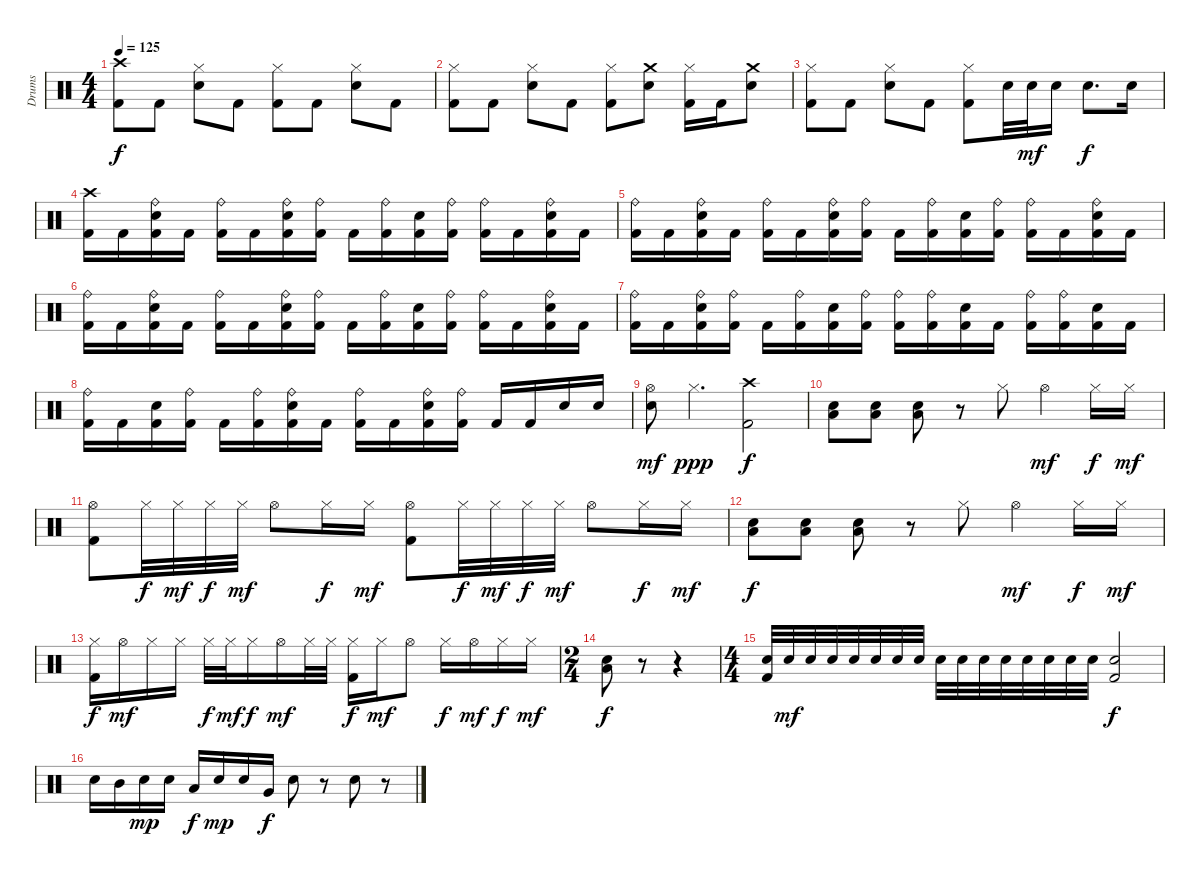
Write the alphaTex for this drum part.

\track ("Drums" "Drums") {instrument percussion}
\staff {score}
\articulation defaults
\ts (4 4)
\tempo 125
\clef neutral
\ks c
("Kick (hit) 2" "Crash high (hit)").8{dy f} "Kick (hit) 2".8 ("Hi-Hat (closed)" "Electric Snare (hit)").8 "Kick (hit) 2".8 ("Kick (hit) 2" "Hi-Hat (closed)").8 "Kick (hit) 2".8 ("Hi-Hat (closed)" "Electric Snare (hit)").8 "Kick (hit) 2".8 |
("Kick (hit) 2" "Hi-Hat (closed)").8 "Kick (hit) 2".8 ("Hi-Hat (closed)" "Electric Snare (hit)").8 "Kick (hit) 2".8 ("Kick (hit) 2" "Hi-Hat (closed)").8 ("Crash medium (hit)" "Electric Snare (hit)").8 ("Kick (hit) 2" "Hi-Hat (closed)").16 "Kick (hit) 2".16 ("Crash medium (hit)" "Electric Snare (hit)").8 |
("Kick (hit) 2" "Hi-Hat (closed)").8 "Kick (hit) 2".8 ("Hi-Hat (closed)" "Electric Snare (hit)").8 "Kick (hit) 2".8 ("Kick (hit) 2" "Hi-Hat (closed)").8 "Electric Snare (hit)".32 "Electric Snare (hit)".32{dy mf} "Electric Snare (hit)".16 "Electric Snare (hit)".8{d dy f} "Electric Snare (hit)".16 |
("Kick (hit) 2" "Crash high (hit)").16 "Kick (hit) 2".16 ("Kick (hit) 2" "Ride (bell)" "Electric Snare (hit)").16 "Kick (hit) 2".16 ("Kick (hit) 2" "Ride (bell)").16 "Kick (hit) 2".16 ("Kick (hit) 2" "Ride (bell)" "Electric Snare (hit)").16 ("Kick (hit) 2" "Ride (bell)").16 "Kick (hit) 2".16 ("Kick (hit) 2" "Ride (bell)").16 ("Kick (hit) 2" "Electric Snare (hit)").16 ("Kick (hit) 2" "Ride (bell)").16 ("Kick (hit) 2" "Ride (bell)").16 "Kick (hit) 2".16 ("Kick (hit) 2" "Ride (bell)" "Electric Snare (hit)").16 "Kick (hit) 2".16 |
("Kick (hit) 2" "Ride (bell)").16 "Kick (hit) 2".16 ("Kick (hit) 2" "Ride (bell)" "Electric Snare (hit)").16 "Kick (hit) 2".16 ("Kick (hit) 2" "Ride (bell)").16 "Kick (hit) 2".16 ("Kick (hit) 2" "Ride (bell)" "Electric Snare (hit)").16 ("Kick (hit) 2" "Ride (bell)").16 "Kick (hit) 2".16 ("Kick (hit) 2" "Ride (bell)").16 ("Kick (hit) 2" "Electric Snare (hit)").16 ("Kick (hit) 2" "Ride (bell)").16 ("Kick (hit) 2" "Ride (bell)").16 "Kick (hit) 2".16 ("Kick (hit) 2" "Ride (bell)" "Electric Snare (hit)").16 "Kick (hit) 2".16 |
("Kick (hit) 2" "Ride (bell)").16 "Kick (hit) 2".16 ("Kick (hit) 2" "Ride (bell)" "Electric Snare (hit)").16 "Kick (hit) 2".16 ("Kick (hit) 2" "Ride (bell)").16 "Kick (hit) 2".16 ("Kick (hit) 2" "Ride (bell)" "Electric Snare (hit)").16 ("Kick (hit) 2" "Ride (bell)").16 "Kick (hit) 2".16 ("Kick (hit) 2" "Ride (bell)").16 ("Kick (hit) 2" "Electric Snare (hit)").16 ("Kick (hit) 2" "Ride (bell)").16 ("Kick (hit) 2" "Ride (bell)").16 "Kick (hit) 2".16 ("Kick (hit) 2" "Ride (bell)" "Electric Snare (hit)").16 "Kick (hit) 2".16 |
("Kick (hit) 2" "Ride (bell)").16 "Kick (hit) 2".16 ("Kick (hit) 2" "Ride (bell)" "Electric Snare (hit)").16 ("Kick (hit) 2" "Ride (bell)").16 "Kick (hit) 2".16 ("Kick (hit) 2" "Ride (bell)").16 ("Kick (hit) 2" "Electric Snare (hit)").16 ("Kick (hit) 2" "Ride (bell)").16 ("Kick (hit) 2" "Ride (bell)").16 ("Kick (hit) 2" "Ride (bell)").16 ("Kick (hit) 2" "Electric Snare (hit)").16 "Kick (hit) 2".16 ("Kick (hit) 2" "Ride (bell)").16 ("Kick (hit) 2" "Ride (bell)").16 ("Kick (hit) 2" "Electric Snare (hit)").16 "Kick (hit) 2".16 |
("Kick (hit) 2" "Ride (bell)").16 "Kick (hit) 2".16 ("Kick (hit) 2" "Electric Snare (hit)").16 ("Kick (hit) 2" "Ride (bell)").16 "Kick (hit) 2".16 ("Kick (hit) 2" "Ride (bell)").16 ("Kick (hit) 2" "Ride (bell)" "Electric Snare (hit)").16 "Kick (hit) 2".16 ("Kick (hit) 2" "Ride (bell)").16 "Kick (hit) 2".16 ("Kick (hit) 2" "Ride (bell)" "Electric Snare (hit)").16 ("Kick (hit) 2" "Ride (bell)").16 "Kick (hit) 2".16 "Kick (hit) 2".16 "Electric Snare (hit)".16 "Electric Snare (hit)".16 |
("Hi-Hat (open)" "Electric Snare (hit)").8{dy mf} "Hi-Hat (closed)".4{d dy ppp} ("Kick (hit) 2" "Crash high (hit)").2{dy f} |
("Low Floor Tom (hit)" "Electric Snare (hit)").8 ("Low Floor Tom (hit)" "Electric Snare (hit)").8 ("Low Floor Tom (hit)" "Electric Snare (hit)").8 r.8 "Hi-Hat (closed)".8 "Hi-Hat (open)".4{dy mf} "Hi-Hat (closed)".16{dy f} "Hi-Hat (closed)".16{dy mf} |
("Hi-Hat (open)" "Kick (hit) 2").8 "Hi-Hat (closed)".32{dy f} "Hi-Hat (closed)".32{dy mf} "Hi-Hat (closed)".32{dy f} "Hi-Hat (closed)".32{dy mf} "Hi-Hat (open)".8 "Hi-Hat (closed)".16{dy f} "Hi-Hat (closed)".16{dy mf} ("Hi-Hat (open)" "Kick (hit) 2").8 "Hi-Hat (closed)".32{dy f} "Hi-Hat (closed)".32{dy mf} "Hi-Hat (closed)".32{dy f} "Hi-Hat (closed)".32{dy mf} "Hi-Hat (open)".8 "Hi-Hat (closed)".16{dy f} "Hi-Hat (closed)".16{dy mf} |
("Low Floor Tom (hit)" "Electric Snare (hit)").8{dy f} ("Low Floor Tom (hit)" "Electric Snare (hit)").8 ("Low Floor Tom (hit)" "Electric Snare (hit)").8 r.8 "Hi-Hat (closed)".8 "Hi-Hat (open)".4{dy mf} "Hi-Hat (closed)".16{dy f} "Hi-Hat (closed)".16{dy mf} |
("Hi-Hat (closed)" "Kick (hit) 2").16{dy f} "Hi-Hat (open)".16{dy mf} "Hi-Hat (closed)".16 "Hi-Hat (closed)".16 "Hi-Hat (closed)".32{dy f} "Hi-Hat (closed)".32{dy mf} "Hi-Hat (closed)".16{dy f} "Hi-Hat (open)".16{dy mf} "Hi-Hat (closed)".32 "Hi-Hat (closed)".32 ("Hi-Hat (closed)" "Kick (hit) 2").16{dy f} "Hi-Hat (closed)".16{dy mf} "Hi-Hat (open)".8 "Hi-Hat (closed)".16{dy f} "Hi-Hat (open)".16{dy mf} "Hi-Hat (closed)".16{dy f} "Hi-Hat (closed)".16{dy mf} |
\ts (2 4)
("Low Floor Tom (hit)" "Electric Snare (hit)").8{dy f} r.8 r.4 |
\ts (4 4)
("Kick (hit) 2" "Electric Snare (hit)").32 "Electric Snare (hit)".32{dy mf} "Electric Snare (hit)".32 "Electric Snare (hit)".32 "Electric Snare (hit)".32 "Electric Snare (hit)".32 "Electric Snare (hit)".32 "Electric Snare (hit)".32 "Electric Snare (hit)".32 "Electric Snare (hit)".32 "Electric Snare (hit)".32 "Electric Snare (hit)".32 "Electric Snare (hit)".32 "Electric Snare (hit)".32 "Electric Snare (hit)".32 "Electric Snare (hit)".32 ("Kick (hit) 2" "Electric Snare (hit)").2{dy f} |
"Electric Snare (hit)".16 "Mid Tom (hit)".16 "Electric Snare (hit)".16{dy mp} "Electric Snare (hit)".16 "Low Tom (hit)".16{dy f} "Electric Snare (hit)".16{dy mp} "Electric Snare (hit)".16 "Very Low Tom (hit)".16{dy f} "Electric Snare (hit)".8 r.8 "Electric Snare (hit)".8 r.8
